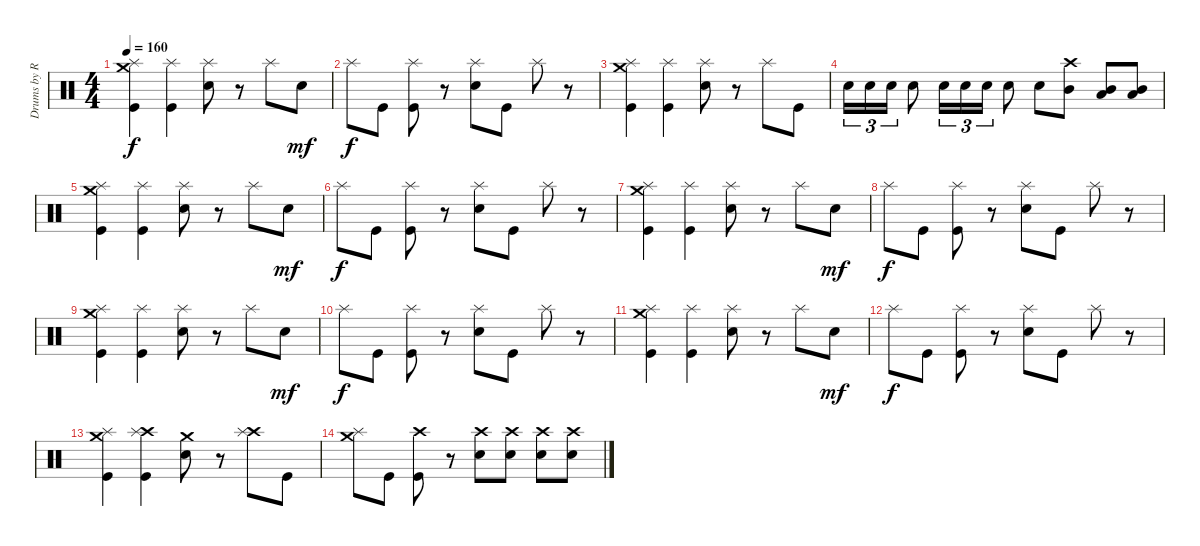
\track ("Drums by Rob Bourdon" "Drums by R") {instrument percussion}
\staff {score}
\articulation defaults
\ts (4 4)
\tempo 160
\clef neutral
\ks c
("Crash medium (hit)" "Splash (hit)" "Kick (hit)").4{dy f} ("Splash (hit)" "Kick (hit)").4 ("Splash (hit)" "Snare (hit) 2").8 r.8 "Splash (hit)".8 "Snare (hit) 2".8{dy mf} |
"Splash (hit)".8{dy f} "Kick (hit)".8 ("Splash (hit)" "Kick (hit)").8 r.8 ("Splash (hit)" "Snare (hit) 2").8 "Kick (hit)".8 "Splash (hit)".8 r.8 |
("Crash medium (hit)" "Splash (hit)" "Kick (hit)").4 ("Splash (hit)" "Kick (hit)").4 ("Splash (hit)" "Snare (hit) 2").8 r.8 "Splash (hit)".8 "Kick (hit)".8 |
"Snare (hit) 2".16{tu (3 2)} "Snare (hit) 2".16{tu (3 2)} "Snare (hit) 2".16{tu (3 2)} "Snare (hit) 2".8 "Snare (hit) 2".16{tu (3 2)} "Snare (hit) 2".16{tu (3 2)} "Snare (hit) 2".16{tu (3 2)} "Snare (hit) 2".8 "Snare (hit) 2".8 ("Crash high (hit)" "Mid Tom (hit)").8 ("Mid Tom (hit)" "Low Tom (hit)").8 ("Mid Tom (hit)" "Low Tom (hit)").8 |
("Crash medium (hit)" "Splash (hit)" "Kick (hit)").4 ("Splash (hit)" "Kick (hit)").4 ("Splash (hit)" "Snare (hit) 2").8 r.8 "Splash (hit)".8 "Snare (hit) 2".8{dy mf} |
"Splash (hit)".8{dy f} "Kick (hit)".8 ("Splash (hit)" "Kick (hit)").8 r.8 ("Splash (hit)" "Snare (hit) 2").8 "Kick (hit)".8 "Splash (hit)".8 r.8 |
("Crash medium (hit)" "Splash (hit)" "Kick (hit)").4 ("Splash (hit)" "Kick (hit)").4 ("Splash (hit)" "Snare (hit) 2").8 r.8 "Splash (hit)".8 "Snare (hit) 2".8{dy mf} |
"Splash (hit)".8{dy f} "Kick (hit)".8 ("Splash (hit)" "Kick (hit)").8 r.8 ("Splash (hit)" "Snare (hit) 2").8 "Kick (hit)".8 "Splash (hit)".8 r.8 |
("Crash medium (hit)" "Splash (hit)" "Kick (hit)").4 ("Splash (hit)" "Kick (hit)").4 ("Splash (hit)" "Snare (hit) 2").8 r.8 "Splash (hit)".8 "Snare (hit) 2".8{dy mf} |
"Splash (hit)".8{dy f} "Kick (hit)".8 ("Splash (hit)" "Kick (hit)").8 r.8 ("Splash (hit)" "Snare (hit) 2").8 "Kick (hit)".8 "Splash (hit)".8 r.8 |
("Crash medium (hit)" "Splash (hit)" "Kick (hit)").4 ("Splash (hit)" "Kick (hit)").4 ("Splash (hit)" "Snare (hit) 2").8 r.8 "Splash (hit)".8 "Snare (hit) 2".8{dy mf} |
"Splash (hit)".8{dy f} "Kick (hit)".8 ("Splash (hit)" "Kick (hit)").8 r.8 ("Splash (hit)" "Snare (hit) 2").8 "Kick (hit)".8 "Splash (hit)".8 r.8 |
("Crash medium (hit)" "Splash (hit)" "Kick (hit)").4 ("Crash high (hit)" "Splash (hit)" "Kick (hit)").4 ("Crash medium (hit)" "Snare (hit) 2").8 r.8 ("Crash high (hit)" "Splash (hit)").8 "Kick (hit)".8 |
("Crash medium (hit)" "Splash (hit)").8 "Kick (hit)".8 ("Crash high (hit)" "Kick (hit)").8 r.8 ("Crash high (hit)" "Snare (hit) 2").8 ("Crash high (hit)" "Snare (hit) 2").8 ("Crash high (hit)" "Snare (hit) 2").8 ("Crash high (hit)" "Snare (hit) 2").8
